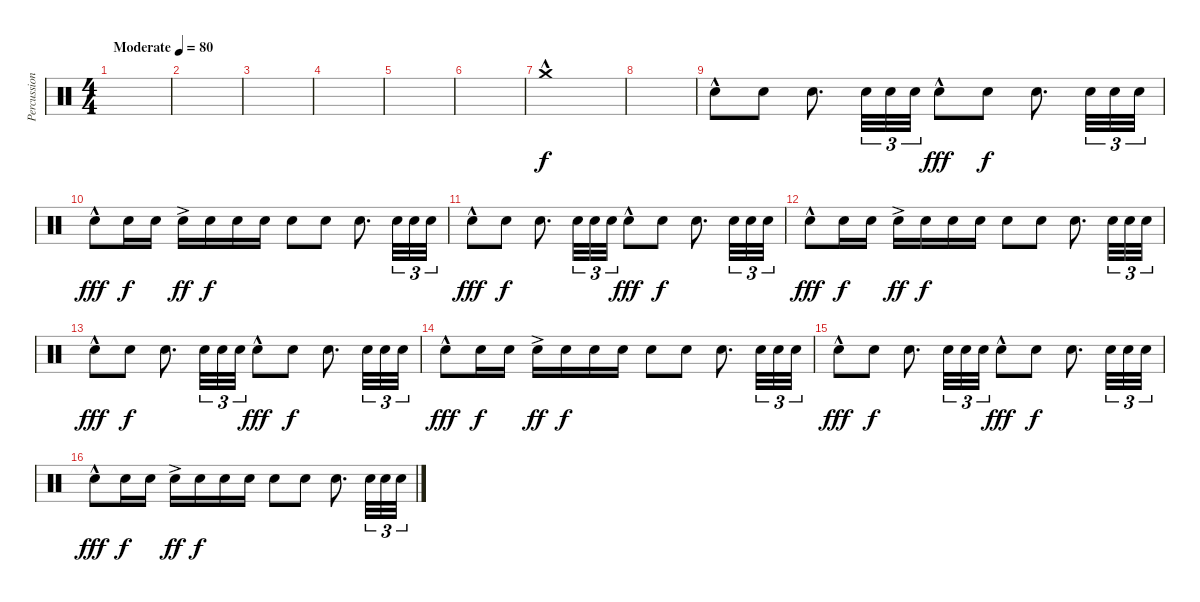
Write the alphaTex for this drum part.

\track ("Percussion" "Percussion") {instrument percussion}
\staff {score}
\articulation defaults
\ts (4 4)
\tempo (80 "Moderate")
\clef neutral
\ks c
|
|
|
|
|
|
"Crash medium (hit)"{hac}.1 |
|
"Snare (hit) 2"{hac}.8 "Snare (hit) 2".8{dy f} "Snare (hit) 2".8{d} "Snare (hit) 2".32{tu (3 2)} "Snare (hit) 2".32{tu (3 2)} "Snare (hit) 2".32{tu (3 2)} "Snare (hit) 2"{hac}.8{dy fff} "Snare (hit) 2".8{dy f} "Snare (hit) 2".8{d} "Snare (hit) 2".32{tu (3 2)} "Snare (hit) 2".32{tu (3 2)} "Snare (hit) 2".32{tu (3 2)} |
"Snare (hit) 2"{hac}.8{dy fff} "Snare (hit) 2".16{dy f} "Snare (hit) 2".16 "Snare (hit) 2"{ac}.16{dy ff} "Snare (hit) 2".16{dy f} "Snare (hit) 2".16 "Snare (hit) 2".16 "Snare (hit) 2".8 "Snare (hit) 2".8 "Snare (hit) 2".8{d} "Snare (hit) 2".32{tu (3 2)} "Snare (hit) 2".32{tu (3 2)} "Snare (hit) 2".32{tu (3 2)} |
"Snare (hit) 2"{hac}.8{dy fff} "Snare (hit) 2".8{dy f} "Snare (hit) 2".8{d} "Snare (hit) 2".32{tu (3 2)} "Snare (hit) 2".32{tu (3 2)} "Snare (hit) 2".32{tu (3 2)} "Snare (hit) 2"{hac}.8{dy fff} "Snare (hit) 2".8{dy f} "Snare (hit) 2".8{d} "Snare (hit) 2".32{tu (3 2)} "Snare (hit) 2".32{tu (3 2)} "Snare (hit) 2".32{tu (3 2)} |
"Snare (hit) 2"{hac}.8{dy fff} "Snare (hit) 2".16{dy f} "Snare (hit) 2".16 "Snare (hit) 2"{ac}.16{dy ff} "Snare (hit) 2".16{dy f} "Snare (hit) 2".16 "Snare (hit) 2".16 "Snare (hit) 2".8 "Snare (hit) 2".8 "Snare (hit) 2".8{d} "Snare (hit) 2".32{tu (3 2)} "Snare (hit) 2".32{tu (3 2)} "Snare (hit) 2".32{tu (3 2)} |
"Snare (hit) 2"{hac}.8{dy fff} "Snare (hit) 2".8{dy f} "Snare (hit) 2".8{d} "Snare (hit) 2".32{tu (3 2)} "Snare (hit) 2".32{tu (3 2)} "Snare (hit) 2".32{tu (3 2)} "Snare (hit) 2"{hac}.8{dy fff} "Snare (hit) 2".8{dy f} "Snare (hit) 2".8{d} "Snare (hit) 2".32{tu (3 2)} "Snare (hit) 2".32{tu (3 2)} "Snare (hit) 2".32{tu (3 2)} |
"Snare (hit) 2"{hac}.8{dy fff} "Snare (hit) 2".16{dy f} "Snare (hit) 2".16 "Snare (hit) 2"{ac}.16{dy ff} "Snare (hit) 2".16{dy f} "Snare (hit) 2".16 "Snare (hit) 2".16 "Snare (hit) 2".8 "Snare (hit) 2".8 "Snare (hit) 2".8{d} "Snare (hit) 2".32{tu (3 2)} "Snare (hit) 2".32{tu (3 2)} "Snare (hit) 2".32{tu (3 2)} |
"Snare (hit) 2"{hac}.8{dy fff} "Snare (hit) 2".8{dy f} "Snare (hit) 2".8{d} "Snare (hit) 2".32{tu (3 2)} "Snare (hit) 2".32{tu (3 2)} "Snare (hit) 2".32{tu (3 2)} "Snare (hit) 2"{hac}.8{dy fff} "Snare (hit) 2".8{dy f} "Snare (hit) 2".8{d} "Snare (hit) 2".32{tu (3 2)} "Snare (hit) 2".32{tu (3 2)} "Snare (hit) 2".32{tu (3 2)} |
"Snare (hit) 2"{hac}.8{dy fff} "Snare (hit) 2".16{dy f} "Snare (hit) 2".16 "Snare (hit) 2"{ac}.16{dy ff} "Snare (hit) 2".16{dy f} "Snare (hit) 2".16 "Snare (hit) 2".16 "Snare (hit) 2".8 "Snare (hit) 2".8 "Snare (hit) 2".8{d} "Snare (hit) 2".32{tu (3 2)} "Snare (hit) 2".32{tu (3 2)} "Snare (hit) 2".32{tu (3 2)}
